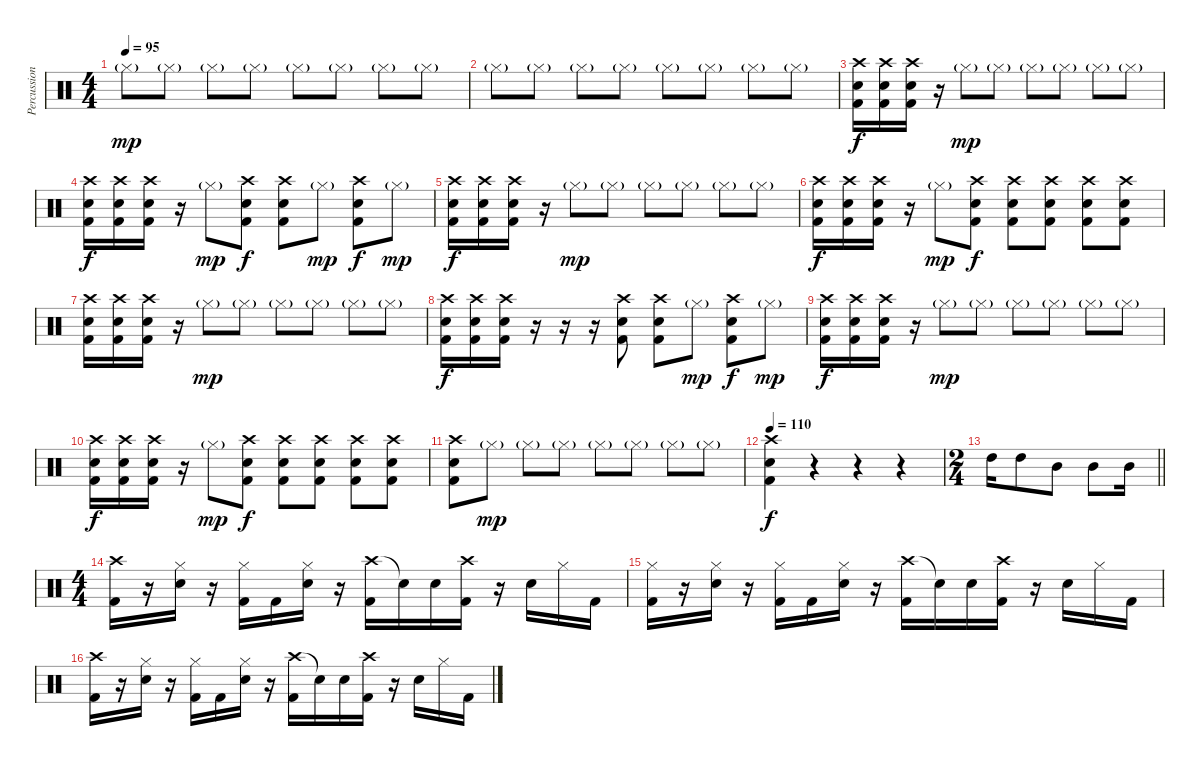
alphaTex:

\track ("Percussion" "Percussion") {instrument percussion}
\staff {score}
\articulation defaults
\ts (4 4)
\tempo 95
\clef neutral
\ks c "Hi-Hat (closed)"{g}.8{dy mp} "Hi-Hat (closed)"{g}.8 "Hi-Hat (closed)"{g}.8 "Hi-Hat (closed)"{g}.8 "Hi-Hat (closed)"{g}.8 "Hi-Hat (closed)"{g}.8 "Hi-Hat (closed)"{g}.8 "Hi-Hat (closed)"{g}.8
|
"Hi-Hat (closed)"{g}.8 "Hi-Hat (closed)"{g}.8 "Hi-Hat (closed)"{g}.8 "Hi-Hat (closed)"{g}.8 "Hi-Hat (closed)"{g}.8 "Hi-Hat (closed)"{g}.8 "Hi-Hat (closed)"{g}.8 "Hi-Hat (closed)"{g}.8 |
("Electric Snare (hit)" "Kick (hit) 2" "Crash high (hit)").16{dy f} ("Electric Snare (hit)" "Kick (hit) 2" "Crash high (hit)").16 ("Electric Snare (hit)" "Kick (hit) 2" "Crash high (hit)").16 r.16 "Hi-Hat (closed)"{g}.8{dy mp} "Hi-Hat (closed)"{g}.8 "Hi-Hat (closed)"{g}.8 "Hi-Hat (closed)"{g}.8 "Hi-Hat (closed)"{g}.8 "Hi-Hat (closed)"{g}.8 |
("Electric Snare (hit)" "Kick (hit) 2" "Crash high (hit)").16{dy f} ("Electric Snare (hit)" "Kick (hit) 2" "Crash high (hit)").16 ("Electric Snare (hit)" "Kick (hit) 2" "Crash high (hit)").16 r.16 "Hi-Hat (closed)"{g}.8{dy mp} ("Electric Snare (hit)" "Kick (hit) 2" "Crash high (hit)").8{dy f} ("Electric Snare (hit)" "Kick (hit) 2" "Crash high (hit)").8 "Hi-Hat (closed)"{g}.8{dy mp} ("Electric Snare (hit)" "Kick (hit) 2" "Crash high (hit)").8{dy f} "Hi-Hat (closed)"{g}.8{dy mp} |
("Electric Snare (hit)" "Kick (hit) 2" "Crash high (hit)").16{dy f} ("Electric Snare (hit)" "Kick (hit) 2" "Crash high (hit)").16 ("Electric Snare (hit)" "Kick (hit) 2" "Crash high (hit)").16 r.16 "Hi-Hat (closed)"{g}.8{dy mp} "Hi-Hat (closed)"{g}.8 "Hi-Hat (closed)"{g}.8 "Hi-Hat (closed)"{g}.8 "Hi-Hat (closed)"{g}.8 "Hi-Hat (closed)"{g}.8 |
("Electric Snare (hit)" "Kick (hit) 2" "Crash high (hit)").16{dy f} ("Electric Snare (hit)" "Kick (hit) 2" "Crash high (hit)").16 ("Electric Snare (hit)" "Kick (hit) 2" "Crash high (hit)").16 r.16 "Hi-Hat (closed)"{g}.8{dy mp} ("Electric Snare (hit)" "Kick (hit) 2" "Crash high (hit)").8{dy f} ("Electric Snare (hit)" "Kick (hit) 2" "Crash high (hit)").8 ("Electric Snare (hit)" "Kick (hit) 2" "Crash high (hit)").8 ("Electric Snare (hit)" "Kick (hit) 2" "Crash high (hit)").8 ("Electric Snare (hit)" "Kick (hit) 2" "Crash high (hit)").8 |
("Electric Snare (hit)" "Kick (hit) 2" "Crash high (hit)").16 ("Electric Snare (hit)" "Kick (hit) 2" "Crash high (hit)").16 ("Electric Snare (hit)" "Kick (hit) 2" "Crash high (hit)").16 r.16 "Hi-Hat (closed)"{g}.8{dy mp} "Hi-Hat (closed)"{g}.8 "Hi-Hat (closed)"{g}.8 "Hi-Hat (closed)"{g}.8 "Hi-Hat (closed)"{g}.8 "Hi-Hat (closed)"{g}.8 |
("Electric Snare (hit)" "Kick (hit) 2" "Crash high (hit)").16{dy f} ("Electric Snare (hit)" "Kick (hit) 2" "Crash high (hit)").16 ("Electric Snare (hit)" "Kick (hit) 2" "Crash high (hit)").16 r.16 r.16 r.16 ("Electric Snare (hit)" "Kick (hit) 2" "Crash high (hit)").8 ("Electric Snare (hit)" "Kick (hit) 2" "Crash high (hit)").8 "Hi-Hat (closed)"{g}.8{dy mp} ("Electric Snare (hit)" "Kick (hit) 2" "Crash high (hit)").8{dy f} "Hi-Hat (closed)"{g}.8{dy mp} |
("Electric Snare (hit)" "Kick (hit) 2" "Crash high (hit)").16{dy f} ("Electric Snare (hit)" "Kick (hit) 2" "Crash high (hit)").16 ("Electric Snare (hit)" "Kick (hit) 2" "Crash high (hit)").16 r.16 "Hi-Hat (closed)"{g}.8{dy mp} "Hi-Hat (closed)"{g}.8 "Hi-Hat (closed)"{g}.8 "Hi-Hat (closed)"{g}.8 "Hi-Hat (closed)"{g}.8 "Hi-Hat (closed)"{g}.8 |
("Electric Snare (hit)" "Kick (hit) 2" "Crash high (hit)").16{dy f} ("Electric Snare (hit)" "Kick (hit) 2" "Crash high (hit)").16 ("Electric Snare (hit)" "Kick (hit) 2" "Crash high (hit)").16 r.16 "Hi-Hat (closed)"{g}.8{dy mp} ("Electric Snare (hit)" "Kick (hit) 2" "Crash high (hit)").8{dy f} ("Electric Snare (hit)" "Kick (hit) 2" "Crash high (hit)").8 ("Electric Snare (hit)" "Kick (hit) 2" "Crash high (hit)").8 ("Electric Snare (hit)" "Kick (hit) 2" "Crash high (hit)").8 ("Electric Snare (hit)" "Kick (hit) 2" "Crash high (hit)").8 |
("Electric Snare (hit)" "Kick (hit) 2" "Crash high (hit)").8 "Hi-Hat (closed)"{g}.8{dy mp} "Hi-Hat (closed)"{g}.8 "Hi-Hat (closed)"{g}.8 "Hi-Hat (closed)"{g}.8 "Hi-Hat (closed)"{g}.8 "Hi-Hat (closed)"{g}.8 "Hi-Hat (closed)"{g}.8 |
\tempo 110
("Crash high (hit)" "Kick (hit) 2" "Electric Snare (hit)").4{dy f} r.4 r.4 r.4 |
\ts (2 4)
\barLineRight lightlight "High Tom (hit)".16 "High Tom (hit)".8 "Mid Tom (hit)".8 "Mid Tom (hit)".8 "Mid Tom (hit)".16
|
\ts (4 4)
("Crash high (hit)" "Kick (hit) 2").16 r.16 ("Hi-Hat (closed)" "Electric Snare (hit)").16 r.16 ("Hi-Hat (closed)" "Kick (hit) 2").16 "Kick (hit) 2".16 ("Hi-Hat (closed)" "Electric Snare (hit)").16 r.16 ("Crash high (hit)" "Kick (hit) 2").16 "Snare (hit)"{t}.16 "Electric Snare (hit)".16 ("Crash high (hit)" "Kick (hit) 2").16 r.16 "Electric Snare (hit)".16 "Hi-Hat (closed)".16 "Kick (hit) 2".16 |
("Hi-Hat (closed)" "Kick (hit) 2").16 r.16 ("Hi-Hat (closed)" "Electric Snare (hit)").16 r.16 ("Hi-Hat (closed)" "Kick (hit) 2").16 "Kick (hit) 2".16 ("Hi-Hat (closed)" "Electric Snare (hit)").16 r.16 ("Crash high (hit)" "Kick (hit) 2").16 "Snare (hit)"{t}.16 "Electric Snare (hit)".16 ("Crash high (hit)" "Kick (hit) 2").16 r.16 "Electric Snare (hit)".16 "Hi-Hat (closed)".16 "Kick (hit) 2".16 |
("Crash high (hit)" "Kick (hit) 2").16 r.16 ("Hi-Hat (closed)" "Electric Snare (hit)").16 r.16 ("Hi-Hat (closed)" "Kick (hit) 2").16 "Kick (hit) 2".16 ("Hi-Hat (closed)" "Electric Snare (hit)").16 r.16 ("Crash high (hit)" "Kick (hit) 2").16 "Snare (hit)"{t}.16 "Electric Snare (hit)".16 ("Crash high (hit)" "Kick (hit) 2").16 r.16 "Electric Snare (hit)".16 "Hi-Hat (closed)".16 "Kick (hit) 2".16
